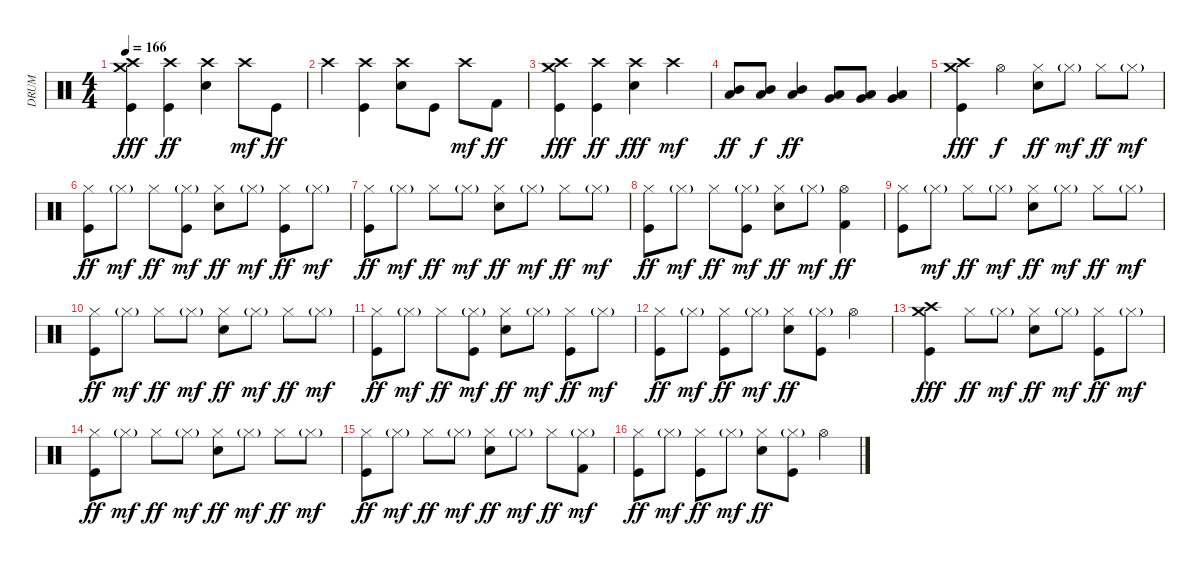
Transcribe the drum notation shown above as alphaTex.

\track ("DRUM" "DRUM") {instrument percussion}
\staff {score}
\articulation defaults
\ts (4 4)
\tempo 166
\clef neutral
\ks c
("Crash high (hit)" "Crash medium (hit)" "Kick (hit)").4{dy fff} ("Crash high (hit)" "Kick (hit)").4{dy ff} ("Crash high (hit)" "Electric Snare (hit)").4 "Crash high (hit)".8{dy mf} "Kick (hit)".8{dy ff} |
"Crash high (hit)".4 ("Crash high (hit)" "Kick (hit)").4 ("Crash high (hit)" "Electric Snare (hit)").8 "Kick (hit)".8 "Crash high (hit)".8{dy mf} "Kick (hit) 2".8{dy ff} |
("Crash high (hit)" "Crash medium (hit)" "Kick (hit)").4{dy fff} ("Crash high (hit)" "Kick (hit)").4{dy ff} ("Crash high (hit)" "Electric Snare (hit)").4{dy fff} "Crash high (hit)".4{dy mf} |
("Mid Tom (hit)" "Low Tom (hit)").8{dy ff} ("Mid Tom (hit)" "Low Tom (hit)").8{dy f} ("Mid Tom (hit)" "Low Tom (hit)").4{dy ff} ("Very Low Tom (hit)" "Low Floor Tom (hit)").8 ("Very Low Tom (hit)" "Low Floor Tom (hit)").8 ("Very Low Tom (hit)" "Low Floor Tom (hit)").4 |
("Crash high (hit)" "Crash medium (hit)" "Kick (hit)").4{dy fff} "Hi-Hat (open)".4{dy f} ("Hi-Hat (closed)" "Electric Snare (hit)").8{dy ff} "Hi-Hat (closed)"{g}.8{dy mf} "Hi-Hat (closed)".8{dy ff} "Hi-Hat (closed)"{g}.8{dy mf} |
("Hi-Hat (closed)" "Kick (hit)").8{dy ff} "Hi-Hat (closed)"{g}.8{dy mf} "Hi-Hat (closed)".8{dy ff} ("Hi-Hat (closed)"{g} "Kick (hit)").8{dy mf} ("Hi-Hat (closed)" "Electric Snare (hit)").8{dy ff} "Hi-Hat (closed)"{g}.8{dy mf} ("Hi-Hat (closed)" "Kick (hit)").8{dy ff} "Hi-Hat (closed)"{g}.8{dy mf} |
("Hi-Hat (closed)" "Kick (hit)").8{dy ff} "Hi-Hat (closed)"{g}.8{dy mf} "Hi-Hat (closed)".8{dy ff} "Hi-Hat (closed)"{g}.8{dy mf} ("Hi-Hat (closed)" "Electric Snare (hit)").8{dy ff} "Hi-Hat (closed)"{g}.8{dy mf} "Hi-Hat (closed)".8{dy ff} "Hi-Hat (closed)"{g}.8{dy mf} |
("Hi-Hat (closed)" "Kick (hit)").8{dy ff} "Hi-Hat (closed)"{g}.8{dy mf} "Hi-Hat (closed)".8{dy ff} ("Hi-Hat (closed)"{g} "Kick (hit)").8{dy mf} ("Hi-Hat (closed)" "Electric Snare (hit)").8{dy ff} "Hi-Hat (closed)"{g}.8{dy mf} ("Hi-Hat (open)" "Kick (hit) 2").4{dy ff} |
("Hi-Hat (closed)" "Kick (hit)").8 "Hi-Hat (closed)"{g}.8{dy mf} "Hi-Hat (closed)".8{dy ff} "Hi-Hat (closed)"{g}.8{dy mf} ("Hi-Hat (closed)" "Electric Snare (hit)").8{dy ff} "Hi-Hat (closed)"{g}.8{dy mf} "Hi-Hat (closed)".8{dy ff} "Hi-Hat (closed)"{g}.8{dy mf} |
("Hi-Hat (closed)" "Kick (hit)").8{dy ff} "Hi-Hat (closed)"{g}.8{dy mf} "Hi-Hat (closed)".8{dy ff} "Hi-Hat (closed)"{g}.8{dy mf} ("Hi-Hat (closed)" "Electric Snare (hit)").8{dy ff} "Hi-Hat (closed)"{g}.8{dy mf} "Hi-Hat (closed)".8{dy ff} "Hi-Hat (closed)"{g}.8{dy mf} |
("Hi-Hat (closed)" "Kick (hit)").8{dy ff} "Hi-Hat (closed)"{g}.8{dy mf} "Hi-Hat (closed)".8{dy ff} ("Hi-Hat (closed)"{g} "Kick (hit)").8{dy mf} ("Hi-Hat (closed)" "Electric Snare (hit)").8{dy ff} "Hi-Hat (closed)"{g}.8{dy mf} ("Hi-Hat (closed)" "Kick (hit)").8{dy ff} "Hi-Hat (closed)"{g}.8{dy mf} |
("Hi-Hat (closed)" "Kick (hit)").8{dy ff} "Hi-Hat (closed)"{g}.8{dy mf} ("Hi-Hat (closed)" "Kick (hit)").8{dy ff} "Hi-Hat (closed)"{g}.8{dy mf} ("Hi-Hat (closed)" "Electric Snare (hit)").8{dy ff} ("Hi-Hat (closed)"{g} "Kick (hit)").8 "Hi-Hat (open)".4 |
("Crash high (hit)" "Crash medium (hit)" "Kick (hit)").4{dy fff} "Hi-Hat (closed)".8{dy ff} "Hi-Hat (closed)"{g}.8{dy mf} ("Hi-Hat (closed)" "Electric Snare (hit)").8{dy ff} "Hi-Hat (closed)"{g}.8{dy mf} ("Hi-Hat (closed)" "Kick (hit)").8{dy ff} "Hi-Hat (closed)"{g}.8{dy mf} |
("Hi-Hat (closed)" "Kick (hit)").8{dy ff} "Hi-Hat (closed)"{g}.8{dy mf} "Hi-Hat (closed)".8{dy ff} "Hi-Hat (closed)"{g}.8{dy mf} ("Hi-Hat (closed)" "Electric Snare (hit)").8{dy ff} "Hi-Hat (closed)"{g}.8{dy mf} "Hi-Hat (closed)".8{dy ff} "Hi-Hat (closed)"{g}.8{dy mf} |
("Hi-Hat (closed)" "Kick (hit)").8{dy ff} "Hi-Hat (closed)"{g}.8{dy mf} "Hi-Hat (closed)".8{dy ff} "Hi-Hat (closed)"{g}.8{dy mf} ("Hi-Hat (closed)" "Electric Snare (hit)").8{dy ff} "Hi-Hat (closed)"{g}.8{dy mf} "Hi-Hat (closed)".8{dy ff} ("Hi-Hat (closed)"{g} "Kick (hit) 2").8{dy mf} |
("Hi-Hat (closed)" "Kick (hit)").8{dy ff} "Hi-Hat (closed)"{g}.8{dy mf} ("Hi-Hat (closed)" "Kick (hit)").8{dy ff} "Hi-Hat (closed)"{g}.8{dy mf} ("Hi-Hat (closed)" "Electric Snare (hit)").8{dy ff} ("Hi-Hat (closed)"{g} "Kick (hit)").8 "Hi-Hat (open)".4
